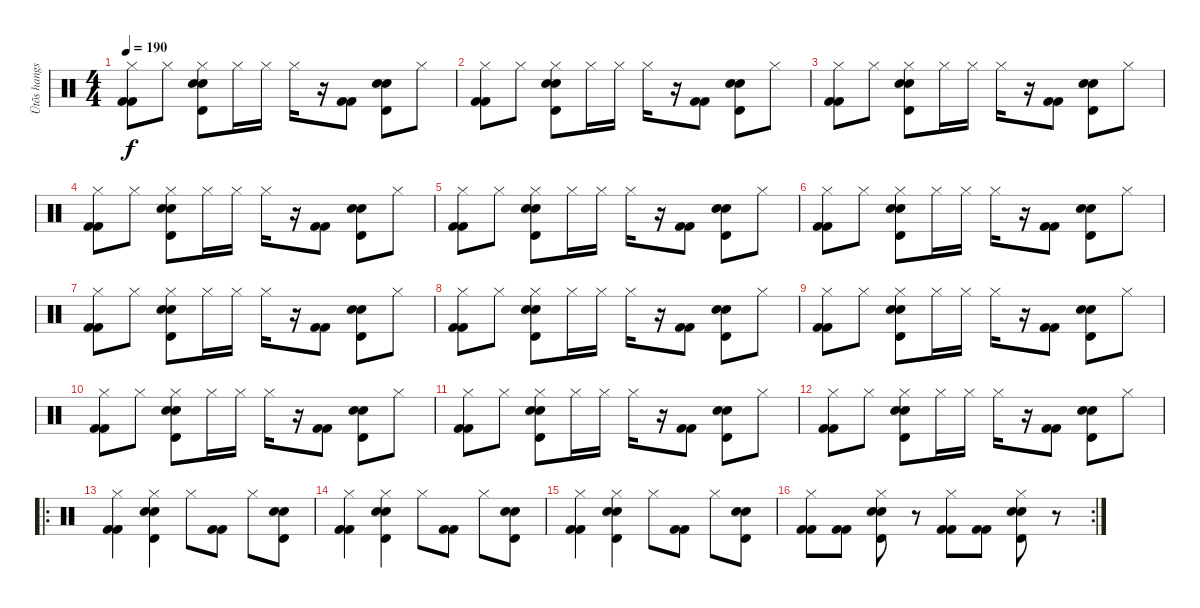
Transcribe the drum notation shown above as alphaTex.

\track ("Ütõs hangszer" "Ütõs hangs") {instrument percussion}
\staff {score}
\articulation defaults
\ts (4 4)
\tempo 190
\clef neutral
\ks c
("Hi-Hat (closed)" "Kick (hit) 2" "Kick (hit) 2").8{dy f} "Hi-Hat (closed)".8 ("Hi-Hat (closed)" "Timbale high (hit)" "Electric Snare (hit)" "Electric Snare (hit)").8 "Hi-Hat (closed)".16 "Hi-Hat (closed)".16 "Hi-Hat (closed)".16 r.16 ("Kick (hit) 2" "Kick (hit) 2").8 ("Timbale high (hit)" "Electric Snare (hit)" "Electric Snare (hit)").8 "Hi-Hat (closed)".8 |
("Hi-Hat (closed)" "Kick (hit) 2" "Kick (hit) 2").8 "Hi-Hat (closed)".8 ("Hi-Hat (closed)" "Timbale high (hit)" "Electric Snare (hit)" "Electric Snare (hit)").8 "Hi-Hat (closed)".16 "Hi-Hat (closed)".16 "Hi-Hat (closed)".16 r.16 ("Kick (hit) 2" "Kick (hit) 2").8 ("Timbale high (hit)" "Electric Snare (hit)" "Electric Snare (hit)").8 "Hi-Hat (closed)".8 |
("Hi-Hat (closed)" "Kick (hit) 2" "Kick (hit) 2").8 "Hi-Hat (closed)".8 ("Hi-Hat (closed)" "Timbale high (hit)" "Electric Snare (hit)" "Electric Snare (hit)").8 "Hi-Hat (closed)".16 "Hi-Hat (closed)".16 "Hi-Hat (closed)".16 r.16 ("Kick (hit) 2" "Kick (hit) 2").8 ("Timbale high (hit)" "Electric Snare (hit)" "Electric Snare (hit)").8 "Hi-Hat (closed)".8 |
("Hi-Hat (closed)" "Kick (hit) 2" "Kick (hit) 2").8 "Hi-Hat (closed)".8 ("Hi-Hat (closed)" "Timbale high (hit)" "Electric Snare (hit)" "Electric Snare (hit)").8 "Hi-Hat (closed)".16 "Hi-Hat (closed)".16 "Hi-Hat (closed)".16 r.16 ("Kick (hit) 2" "Kick (hit) 2").8 ("Timbale high (hit)" "Electric Snare (hit)" "Electric Snare (hit)").8 "Hi-Hat (closed)".8 |
("Hi-Hat (closed)" "Kick (hit) 2" "Kick (hit) 2").8 "Hi-Hat (closed)".8 ("Hi-Hat (closed)" "Timbale high (hit)" "Electric Snare (hit)" "Electric Snare (hit)").8 "Hi-Hat (closed)".16 "Hi-Hat (closed)".16 "Hi-Hat (closed)".16 r.16 ("Kick (hit) 2" "Kick (hit) 2").8 ("Timbale high (hit)" "Electric Snare (hit)" "Electric Snare (hit)").8 "Hi-Hat (closed)".8 |
("Hi-Hat (closed)" "Kick (hit) 2" "Kick (hit) 2").8 "Hi-Hat (closed)".8 ("Hi-Hat (closed)" "Timbale high (hit)" "Electric Snare (hit)" "Electric Snare (hit)").8 "Hi-Hat (closed)".16 "Hi-Hat (closed)".16 "Hi-Hat (closed)".16 r.16 ("Kick (hit) 2" "Kick (hit) 2").8 ("Timbale high (hit)" "Electric Snare (hit)" "Electric Snare (hit)").8 "Hi-Hat (closed)".8 |
("Hi-Hat (closed)" "Kick (hit) 2" "Kick (hit) 2").8 "Hi-Hat (closed)".8 ("Hi-Hat (closed)" "Timbale high (hit)" "Electric Snare (hit)" "Electric Snare (hit)").8 "Hi-Hat (closed)".16 "Hi-Hat (closed)".16 "Hi-Hat (closed)".16 r.16 ("Kick (hit) 2" "Kick (hit) 2").8 ("Timbale high (hit)" "Electric Snare (hit)" "Electric Snare (hit)").8 "Hi-Hat (closed)".8 |
("Hi-Hat (closed)" "Kick (hit) 2" "Kick (hit) 2").8 "Hi-Hat (closed)".8 ("Hi-Hat (closed)" "Timbale high (hit)" "Electric Snare (hit)" "Electric Snare (hit)").8 "Hi-Hat (closed)".16 "Hi-Hat (closed)".16 "Hi-Hat (closed)".16 r.16 ("Kick (hit) 2" "Kick (hit) 2").8 ("Timbale high (hit)" "Electric Snare (hit)" "Electric Snare (hit)").8 "Hi-Hat (closed)".8 |
("Hi-Hat (closed)" "Kick (hit) 2" "Kick (hit) 2").8 "Hi-Hat (closed)".8 ("Hi-Hat (closed)" "Timbale high (hit)" "Electric Snare (hit)" "Electric Snare (hit)").8 "Hi-Hat (closed)".16 "Hi-Hat (closed)".16 "Hi-Hat (closed)".16 r.16 ("Kick (hit) 2" "Kick (hit) 2").8 ("Timbale high (hit)" "Electric Snare (hit)" "Electric Snare (hit)").8 "Hi-Hat (closed)".8 |
("Hi-Hat (closed)" "Kick (hit) 2" "Kick (hit) 2").8 "Hi-Hat (closed)".8 ("Hi-Hat (closed)" "Timbale high (hit)" "Electric Snare (hit)" "Electric Snare (hit)").8 "Hi-Hat (closed)".16 "Hi-Hat (closed)".16 "Hi-Hat (closed)".16 r.16 ("Kick (hit) 2" "Kick (hit) 2").8 ("Timbale high (hit)" "Electric Snare (hit)" "Electric Snare (hit)").8 "Hi-Hat (closed)".8 |
("Hi-Hat (closed)" "Kick (hit) 2" "Kick (hit) 2").8 "Hi-Hat (closed)".8 ("Hi-Hat (closed)" "Timbale high (hit)" "Electric Snare (hit)" "Electric Snare (hit)").8 "Hi-Hat (closed)".16 "Hi-Hat (closed)".16 "Hi-Hat (closed)".16 r.16 ("Kick (hit) 2" "Kick (hit) 2").8 ("Timbale high (hit)" "Electric Snare (hit)" "Electric Snare (hit)").8 "Hi-Hat (closed)".8 |
("Hi-Hat (closed)" "Kick (hit) 2" "Kick (hit) 2").8 "Hi-Hat (closed)".8 ("Hi-Hat (closed)" "Timbale high (hit)" "Electric Snare (hit)" "Electric Snare (hit)").8 "Hi-Hat (closed)".16 "Hi-Hat (closed)".16 "Hi-Hat (closed)".16 r.16 ("Kick (hit) 2" "Kick (hit) 2").8 ("Timbale high (hit)" "Electric Snare (hit)" "Electric Snare (hit)").8 "Hi-Hat (closed)".8 |
\ro
("Hi-Hat (closed)" "Kick (hit) 2" "Kick (hit) 2").4 ("Hi-Hat (closed)" "Timbale high (hit)" "Electric Snare (hit)" "Electric Snare (hit)").4 "Hi-Hat (closed)".8 ("Kick (hit) 2" "Kick (hit) 2").8 "Hi-Hat (closed)".8 ("Timbale high (hit)" "Electric Snare (hit)" "Electric Snare (hit)").8 |
("Hi-Hat (closed)" "Kick (hit) 2" "Kick (hit) 2").4 ("Hi-Hat (closed)" "Timbale high (hit)" "Electric Snare (hit)" "Electric Snare (hit)").4 "Hi-Hat (closed)".8 ("Kick (hit) 2" "Kick (hit) 2").8 "Hi-Hat (closed)".8 ("Timbale high (hit)" "Electric Snare (hit)" "Electric Snare (hit)").8 |
("Hi-Hat (closed)" "Kick (hit) 2" "Kick (hit) 2").4 ("Hi-Hat (closed)" "Timbale high (hit)" "Electric Snare (hit)" "Electric Snare (hit)").4 "Hi-Hat (closed)".8 ("Kick (hit) 2" "Kick (hit) 2").8 "Hi-Hat (closed)".8 ("Timbale high (hit)" "Electric Snare (hit)" "Electric Snare (hit)").8 |
\rc 2
("Hi-Hat (closed)" "Kick (hit) 2" "Kick (hit) 2").8 ("Kick (hit) 2" "Kick (hit) 2").8 ("Hi-Hat (closed)" "Timbale high (hit)" "Electric Snare (hit)" "Electric Snare (hit)").8 r.8 ("Hi-Hat (closed)" "Kick (hit) 2" "Kick (hit) 2").8 ("Kick (hit) 2" "Kick (hit) 2").8 ("Hi-Hat (closed)" "Timbale high (hit)" "Electric Snare (hit)" "Electric Snare (hit)").8 r.8
